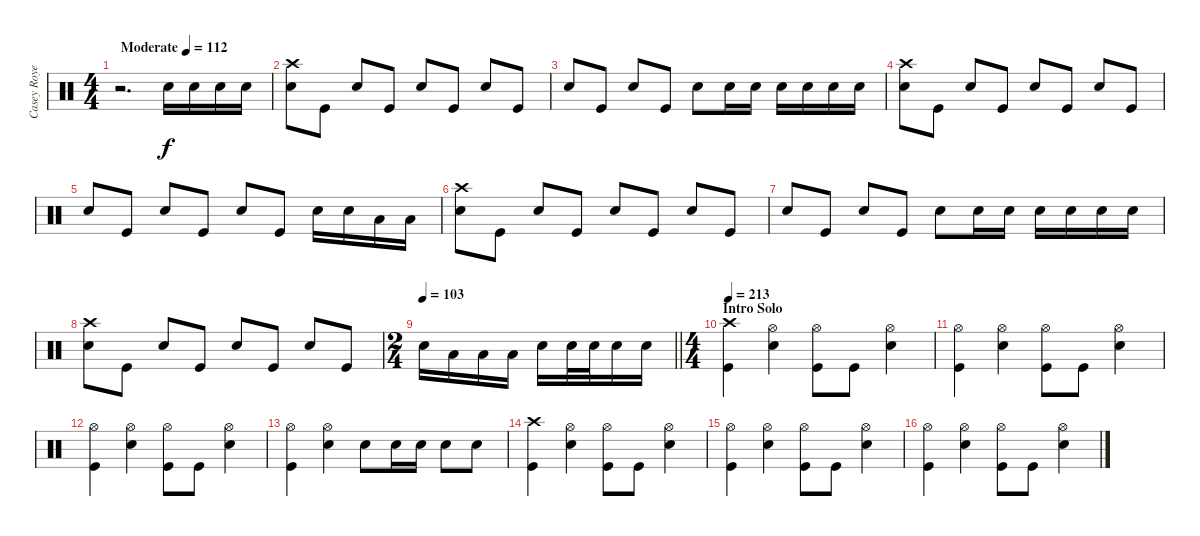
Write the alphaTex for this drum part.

\track ("Casey Royer (Drums)" "Casey Roye") {instrument percussion}
\staff {score}
\articulation defaults
\ts (4 4)
\tempo (112 "Moderate")
\tempo 92
\tempo (112 "Moderate")
\clef neutral
\ks c
r.2{d dy f} "Snare (hit) 2".16 "Snare (hit) 2".16 "Snare (hit) 2".16 "Snare (hit) 2".16 |
("Crash high (hit)" "Snare (hit) 2").8 "Kick (hit)".8 "Snare (hit) 2".8 "Kick (hit)".8 "Snare (hit) 2".8 "Kick (hit)".8 "Snare (hit) 2".8 "Kick (hit)".8 |
"Snare (hit) 2".8 "Kick (hit)".8 "Snare (hit) 2".8 "Kick (hit)".8 "Snare (hit) 2".8 "Snare (hit) 2".16 "Snare (hit) 2".16 "Snare (hit) 2".16 "Snare (hit) 2".16 "Snare (hit) 2".16 "Snare (hit) 2".16 |
("Crash high (hit)" "Snare (hit) 2").8 "Kick (hit)".8 "Snare (hit) 2".8 "Kick (hit)".8 "Snare (hit) 2".8 "Kick (hit)".8 "Snare (hit) 2".8 "Kick (hit)".8 |
"Snare (hit) 2".8 "Kick (hit)".8 "Snare (hit) 2".8 "Kick (hit)".8 "Snare (hit) 2".8 "Kick (hit)".8 "Snare (hit) 2".16 "Snare (hit) 2".16 "Low Tom (hit)".16 "Low Tom (hit)".16 |
("Crash high (hit)" "Snare (hit) 2").8 "Kick (hit)".8 "Snare (hit) 2".8 "Kick (hit)".8 "Snare (hit) 2".8 "Kick (hit)".8 "Snare (hit) 2".8 "Kick (hit)".8 |
"Snare (hit) 2".8 "Kick (hit)".8 "Snare (hit) 2".8 "Kick (hit)".8 "Snare (hit) 2".8 "Snare (hit) 2".16 "Snare (hit) 2".16 "Snare (hit) 2".16 "Snare (hit) 2".16 "Snare (hit) 2".16 "Snare (hit) 2".16 |
("Crash high (hit)" "Snare (hit) 2").8 "Kick (hit)".8 "Snare (hit) 2".8 "Kick (hit)".8 "Snare (hit) 2".8 "Kick (hit)".8 "Snare (hit) 2".8 "Kick (hit)".8 |
\ts (2 4)
\tempo 103
\barLineRight lightlight "Snare (hit) 2".16 "Low Floor Tom (hit)".16 "Low Floor Tom (hit)".16 "Low Floor Tom (hit)".16 "Snare (hit) 2".16 "Snare (hit) 2".32 "Snare (hit) 2".32 "Snare (hit) 2".16 "Snare (hit) 2".16
|
\ts (4 4)
\section ("" "Intro Solo")
\tempo 213
("Crash high (hit)" "Kick (hit)").4 ("Hi-Hat (open)" "Snare (hit) 2").4 ("Hi-Hat (open)" "Kick (hit)").8 "Kick (hit)".8 ("Hi-Hat (open)" "Snare (hit) 2").4 |
("Hi-Hat (open)" "Kick (hit)").4 ("Hi-Hat (open)" "Snare (hit) 2").4 ("Hi-Hat (open)" "Kick (hit)").8 "Kick (hit)".8 ("Hi-Hat (open)" "Snare (hit) 2").4 |
("Hi-Hat (open)" "Kick (hit)").4 ("Hi-Hat (open)" "Snare (hit) 2").4 ("Hi-Hat (open)" "Kick (hit)").8 "Kick (hit)".8 ("Hi-Hat (open)" "Snare (hit) 2").4 |
("Hi-Hat (open)" "Kick (hit)").4 ("Hi-Hat (open)" "Snare (hit) 2").4 "Snare (hit) 2".8 "Snare (hit) 2".16 "Snare (hit) 2".16 "Snare (hit) 2".8 "Snare (hit) 2".8 |
("Crash high (hit)" "Kick (hit)").4 ("Hi-Hat (open)" "Snare (hit) 2").4 ("Hi-Hat (open)" "Kick (hit)").8 "Kick (hit)".8 ("Hi-Hat (open)" "Snare (hit) 2").4 |
("Hi-Hat (open)" "Kick (hit)").4 ("Hi-Hat (open)" "Snare (hit) 2").4 ("Hi-Hat (open)" "Kick (hit)").8 "Kick (hit)".8 ("Hi-Hat (open)" "Snare (hit) 2").4 |
("Hi-Hat (open)" "Kick (hit)").4 ("Hi-Hat (open)" "Snare (hit) 2").4 ("Hi-Hat (open)" "Kick (hit)").8 "Kick (hit)".8 ("Hi-Hat (open)" "Snare (hit) 2").4
